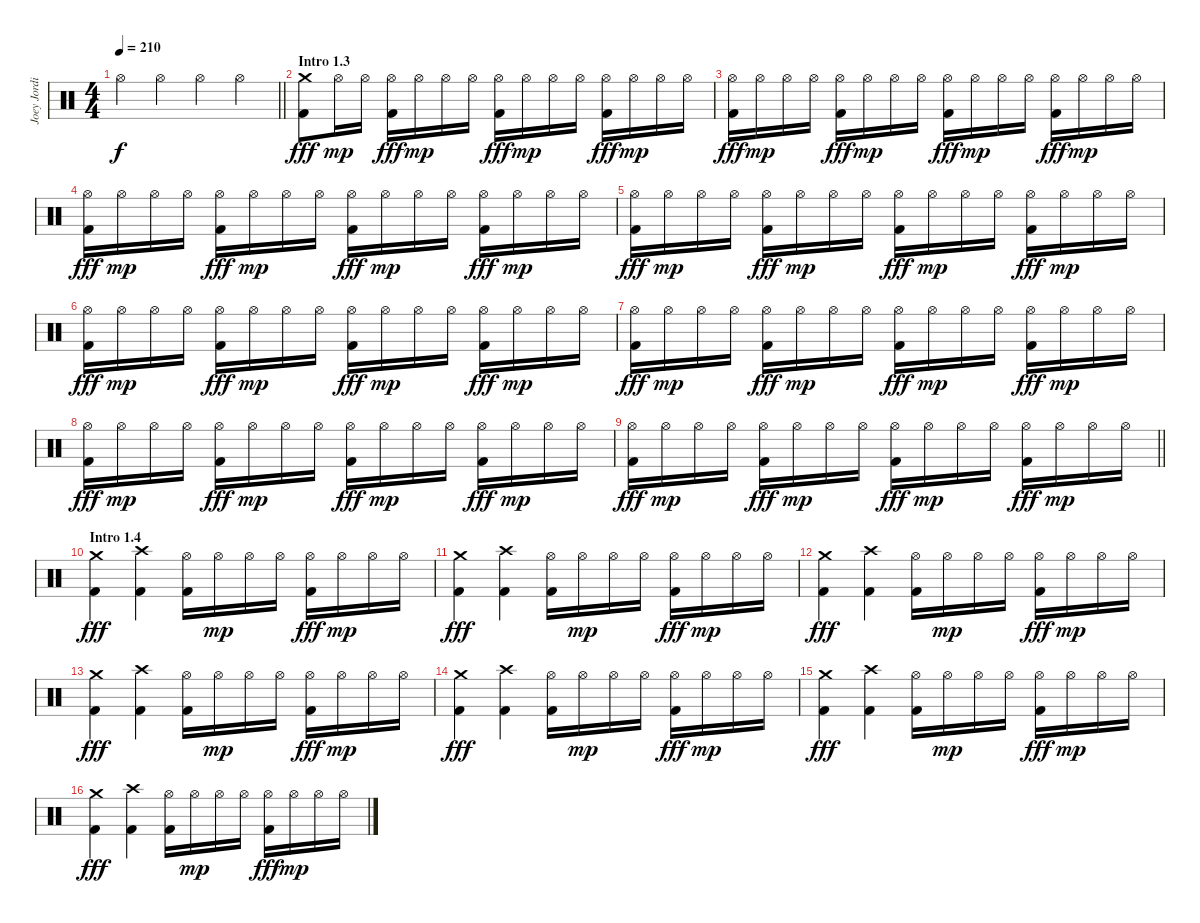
\track ("Joey Jordison" "Joey Jordi") {instrument percussion}
\staff {score}
\articulation defaults
\ts (4 4)
\tempo 210
\clef neutral
\barLineRight lightlight
\ks c "Hi-Hat (open)".4{dy f} "Hi-Hat (open)".4 "Hi-Hat (open)".4 "Hi-Hat (open)".4
|
\section ("" "Intro 1.3")
("Crash medium (hit)" "Kick (hit) 2").8{dy fff} "Hi-Hat (open)".16{dy mp} "Hi-Hat (open)".16 ("Hi-Hat (open)" "Kick (hit) 2").16{dy fff} "Hi-Hat (open)".16{dy mp} "Hi-Hat (open)".16 "Hi-Hat (open)".16 ("Hi-Hat (open)" "Kick (hit) 2").16{dy fff} "Hi-Hat (open)".16{dy mp} "Hi-Hat (open)".16 "Hi-Hat (open)".16 ("Hi-Hat (open)" "Kick (hit) 2").16{dy fff} "Hi-Hat (open)".16{dy mp} "Hi-Hat (open)".16 "Hi-Hat (open)".16 |
("Hi-Hat (open)" "Kick (hit) 2").16{dy fff} "Hi-Hat (open)".16{dy mp} "Hi-Hat (open)".16 "Hi-Hat (open)".16 ("Hi-Hat (open)" "Kick (hit) 2").16{dy fff} "Hi-Hat (open)".16{dy mp} "Hi-Hat (open)".16 "Hi-Hat (open)".16 ("Hi-Hat (open)" "Kick (hit) 2").16{dy fff} "Hi-Hat (open)".16{dy mp} "Hi-Hat (open)".16 "Hi-Hat (open)".16 ("Hi-Hat (open)" "Kick (hit) 2").16{dy fff} "Hi-Hat (open)".16{dy mp} "Hi-Hat (open)".16 "Hi-Hat (open)".16 |
("Hi-Hat (open)" "Kick (hit) 2").16{dy fff} "Hi-Hat (open)".16{dy mp} "Hi-Hat (open)".16 "Hi-Hat (open)".16 ("Hi-Hat (open)" "Kick (hit) 2").16{dy fff} "Hi-Hat (open)".16{dy mp} "Hi-Hat (open)".16 "Hi-Hat (open)".16 ("Hi-Hat (open)" "Kick (hit) 2").16{dy fff} "Hi-Hat (open)".16{dy mp} "Hi-Hat (open)".16 "Hi-Hat (open)".16 ("Hi-Hat (open)" "Kick (hit) 2").16{dy fff} "Hi-Hat (open)".16{dy mp} "Hi-Hat (open)".16 "Hi-Hat (open)".16 |
("Hi-Hat (open)" "Kick (hit) 2").16{dy fff} "Hi-Hat (open)".16{dy mp} "Hi-Hat (open)".16 "Hi-Hat (open)".16 ("Hi-Hat (open)" "Kick (hit) 2").16{dy fff} "Hi-Hat (open)".16{dy mp} "Hi-Hat (open)".16 "Hi-Hat (open)".16 ("Hi-Hat (open)" "Kick (hit) 2").16{dy fff} "Hi-Hat (open)".16{dy mp} "Hi-Hat (open)".16 "Hi-Hat (open)".16 ("Hi-Hat (open)" "Kick (hit) 2").16{dy fff} "Hi-Hat (open)".16{dy mp} "Hi-Hat (open)".16 "Hi-Hat (open)".16 |
("Hi-Hat (open)" "Kick (hit) 2").16{dy fff} "Hi-Hat (open)".16{dy mp} "Hi-Hat (open)".16 "Hi-Hat (open)".16 ("Hi-Hat (open)" "Kick (hit) 2").16{dy fff} "Hi-Hat (open)".16{dy mp} "Hi-Hat (open)".16 "Hi-Hat (open)".16 ("Hi-Hat (open)" "Kick (hit) 2").16{dy fff} "Hi-Hat (open)".16{dy mp} "Hi-Hat (open)".16 "Hi-Hat (open)".16 ("Hi-Hat (open)" "Kick (hit) 2").16{dy fff} "Hi-Hat (open)".16{dy mp} "Hi-Hat (open)".16 "Hi-Hat (open)".16 |
("Hi-Hat (open)" "Kick (hit) 2").16{dy fff} "Hi-Hat (open)".16{dy mp} "Hi-Hat (open)".16 "Hi-Hat (open)".16 ("Hi-Hat (open)" "Kick (hit) 2").16{dy fff} "Hi-Hat (open)".16{dy mp} "Hi-Hat (open)".16 "Hi-Hat (open)".16 ("Hi-Hat (open)" "Kick (hit) 2").16{dy fff} "Hi-Hat (open)".16{dy mp} "Hi-Hat (open)".16 "Hi-Hat (open)".16 ("Hi-Hat (open)" "Kick (hit) 2").16{dy fff} "Hi-Hat (open)".16{dy mp} "Hi-Hat (open)".16 "Hi-Hat (open)".16 |
("Hi-Hat (open)" "Kick (hit) 2").16{dy fff} "Hi-Hat (open)".16{dy mp} "Hi-Hat (open)".16 "Hi-Hat (open)".16 ("Hi-Hat (open)" "Kick (hit) 2").16{dy fff} "Hi-Hat (open)".16{dy mp} "Hi-Hat (open)".16 "Hi-Hat (open)".16 ("Hi-Hat (open)" "Kick (hit) 2").16{dy fff} "Hi-Hat (open)".16{dy mp} "Hi-Hat (open)".16 "Hi-Hat (open)".16 ("Hi-Hat (open)" "Kick (hit) 2").16{dy fff} "Hi-Hat (open)".16{dy mp} "Hi-Hat (open)".16 "Hi-Hat (open)".16 |
\barLineRight lightlight
("Hi-Hat (open)" "Kick (hit) 2").16{dy fff} "Hi-Hat (open)".16{dy mp} "Hi-Hat (open)".16 "Hi-Hat (open)".16 ("Hi-Hat (open)" "Kick (hit) 2").16{dy fff} "Hi-Hat (open)".16{dy mp} "Hi-Hat (open)".16 "Hi-Hat (open)".16 ("Hi-Hat (open)" "Kick (hit) 2").16{dy fff} "Hi-Hat (open)".16{dy mp} "Hi-Hat (open)".16 "Hi-Hat (open)".16 ("Hi-Hat (open)" "Kick (hit) 2").16{dy fff} "Hi-Hat (open)".16{dy mp} "Hi-Hat (open)".16 "Hi-Hat (open)".16 |
\section ("" "Intro 1.4")
("Crash medium (hit)" "Kick (hit) 2").4{dy fff} ("Crash high (hit)" "Kick (hit) 2").4 ("Hi-Hat (open)" "Kick (hit) 2").16 "Hi-Hat (open)".16{dy mp} "Hi-Hat (open)".16 "Hi-Hat (open)".16 ("Hi-Hat (open)" "Kick (hit) 2").16{dy fff} "Hi-Hat (open)".16{dy mp} "Hi-Hat (open)".16 "Hi-Hat (open)".16 |
("Crash medium (hit)" "Kick (hit) 2").4{dy fff} ("Crash high (hit)" "Kick (hit) 2").4 ("Hi-Hat (open)" "Kick (hit) 2").16 "Hi-Hat (open)".16{dy mp} "Hi-Hat (open)".16 "Hi-Hat (open)".16 ("Hi-Hat (open)" "Kick (hit) 2").16{dy fff} "Hi-Hat (open)".16{dy mp} "Hi-Hat (open)".16 "Hi-Hat (open)".16 |
("Crash medium (hit)" "Kick (hit) 2").4{dy fff} ("Crash high (hit)" "Kick (hit) 2").4 ("Hi-Hat (open)" "Kick (hit) 2").16 "Hi-Hat (open)".16{dy mp} "Hi-Hat (open)".16 "Hi-Hat (open)".16 ("Hi-Hat (open)" "Kick (hit) 2").16{dy fff} "Hi-Hat (open)".16{dy mp} "Hi-Hat (open)".16 "Hi-Hat (open)".16 |
("Crash medium (hit)" "Kick (hit) 2").4{dy fff} ("Crash high (hit)" "Kick (hit) 2").4 ("Hi-Hat (open)" "Kick (hit) 2").16 "Hi-Hat (open)".16{dy mp} "Hi-Hat (open)".16 "Hi-Hat (open)".16 ("Hi-Hat (open)" "Kick (hit) 2").16{dy fff} "Hi-Hat (open)".16{dy mp} "Hi-Hat (open)".16 "Hi-Hat (open)".16 |
("Crash medium (hit)" "Kick (hit) 2").4{dy fff} ("Crash high (hit)" "Kick (hit) 2").4 ("Hi-Hat (open)" "Kick (hit) 2").16 "Hi-Hat (open)".16{dy mp} "Hi-Hat (open)".16 "Hi-Hat (open)".16 ("Hi-Hat (open)" "Kick (hit) 2").16{dy fff} "Hi-Hat (open)".16{dy mp} "Hi-Hat (open)".16 "Hi-Hat (open)".16 |
("Crash medium (hit)" "Kick (hit) 2").4{dy fff} ("Crash high (hit)" "Kick (hit) 2").4 ("Hi-Hat (open)" "Kick (hit) 2").16 "Hi-Hat (open)".16{dy mp} "Hi-Hat (open)".16 "Hi-Hat (open)".16 ("Hi-Hat (open)" "Kick (hit) 2").16{dy fff} "Hi-Hat (open)".16{dy mp} "Hi-Hat (open)".16 "Hi-Hat (open)".16 |
("Crash medium (hit)" "Kick (hit) 2").4{dy fff} ("Crash high (hit)" "Kick (hit) 2").4 ("Hi-Hat (open)" "Kick (hit) 2").16 "Hi-Hat (open)".16{dy mp} "Hi-Hat (open)".16 "Hi-Hat (open)".16 ("Hi-Hat (open)" "Kick (hit) 2").16{dy fff} "Hi-Hat (open)".16{dy mp} "Hi-Hat (open)".16 "Hi-Hat (open)".16
